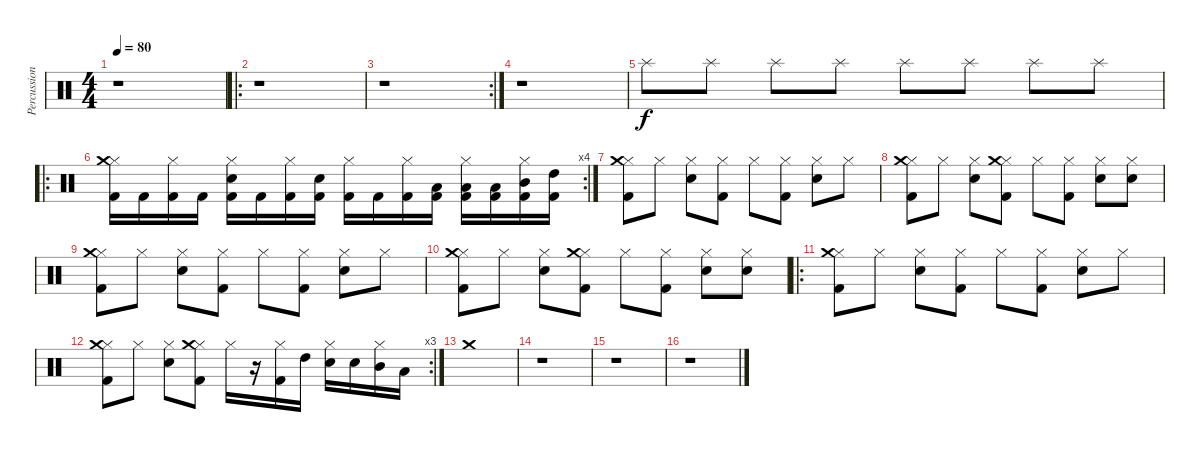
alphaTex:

\track ("Percussion" "Percussion") {instrument percussion}
\staff {score}
\articulation defaults
\ts (4 4)
\tempo 80
\clef neutral
\ks c
r.1{dy f} |
\ro
r.1 |
\rc 2
r.1 |
r.1 |
"Splash (hit)".8{volume 13 balance 8} "Splash (hit)".8 "Splash (hit)".8 "Splash (hit)".8 "Splash (hit)".8 "Splash (hit)".8 "Splash (hit)".8 "Splash (hit)".8 |
\ro
\rc 4
("Hi-Hat (closed)" "Crash medium (hit)" "Kick (hit) 2").16 "Kick (hit) 2".16 ("Hi-Hat (closed)" "Kick (hit) 2").16 "Kick (hit) 2".16 ("Hi-Hat (closed)" "Electric Snare (hit)" "Kick (hit) 2").16 "Kick (hit) 2".16 ("Hi-Hat (closed)" "Kick (hit) 2").16 ("Snare (hit) 2" "Kick (hit) 2").16 ("Hi-Hat (closed)" "Kick (hit) 2").16 "Kick (hit) 2".16 ("Hi-Hat (closed)" "Kick (hit) 2").16 ("Low Floor Tom (hit)" "Kick (hit) 2").16 ("Hi-Hat (closed)" "Low Floor Tom (hit)" "Kick (hit) 2").16 ("Low Tom (hit)" "Kick (hit) 2").16 ("Hi-Hat (closed)" "Mid Tom (hit)" "Kick (hit) 2").16 ("High Tom (hit)" "Kick (hit) 2").16 |
("Hi-Hat (closed)" "Crash medium (hit)" "Kick (hit) 2").8 "Hi-Hat (closed)".8 ("Hi-Hat (closed)" "Electric Snare (hit)").8 ("Hi-Hat (closed)" "Kick (hit) 2").8 "Hi-Hat (closed)".8 ("Hi-Hat (closed)" "Kick (hit) 2").8 ("Hi-Hat (closed)" "Electric Snare (hit)").8 "Hi-Hat (closed)".8 |
("Hi-Hat (closed)" "Crash medium (hit)" "Kick (hit) 2").8 "Hi-Hat (closed)".8 ("Hi-Hat (closed)" "Electric Snare (hit)").8 ("Hi-Hat (closed)" "Crash medium (hit)" "Kick (hit) 2").8 "Hi-Hat (closed)".8 ("Hi-Hat (closed)" "Kick (hit) 2").8 ("Hi-Hat (closed)" "Electric Snare (hit)").8 ("Hi-Hat (closed)" "Snare (hit) 2").8 |
("Hi-Hat (closed)" "Crash medium (hit)" "Kick (hit) 2").8 "Hi-Hat (closed)".8 ("Hi-Hat (closed)" "Electric Snare (hit)").8 ("Hi-Hat (closed)" "Kick (hit) 2").8 "Hi-Hat (closed)".8 ("Hi-Hat (closed)" "Kick (hit) 2").8 ("Hi-Hat (closed)" "Electric Snare (hit)").8 "Hi-Hat (closed)".8 |
("Hi-Hat (closed)" "Crash medium (hit)" "Kick (hit) 2").8 "Hi-Hat (closed)".8 ("Hi-Hat (closed)" "Electric Snare (hit)").8 ("Hi-Hat (closed)" "Crash medium (hit)" "Kick (hit) 2").8 "Hi-Hat (closed)".8 ("Hi-Hat (closed)" "Kick (hit) 2").8 ("Hi-Hat (closed)" "Electric Snare (hit)").8 ("Hi-Hat (closed)" "Snare (hit) 2").8 |
\ro
("Hi-Hat (closed)" "Crash medium (hit)" "Kick (hit) 2").8 "Hi-Hat (closed)".8 ("Hi-Hat (closed)" "Electric Snare (hit)").8 ("Hi-Hat (closed)" "Kick (hit) 2").8 "Hi-Hat (closed)".8 ("Hi-Hat (closed)" "Kick (hit) 2").8 ("Hi-Hat (closed)" "Electric Snare (hit)").8 "Hi-Hat (closed)".8 |
\rc 3
("Hi-Hat (closed)" "Crash medium (hit)" "Kick (hit) 2").8 "Hi-Hat (closed)".8 ("Hi-Hat (closed)" "Electric Snare (hit)").8 ("Hi-Hat (closed)" "Crash medium (hit)" "Kick (hit) 2").8 "Hi-Hat (closed)".16 r.16 ("Hi-Hat (closed)" "Kick (hit) 2").16 "High Tom (hit)".16{volume 16} ("Hi-Hat (closed)" "Electric Snare (hit)").16 "Snare (hit) 2".16 ("Hi-Hat (closed)" "Mid Tom (hit)").16 "Low Tom (hit)".16 |
"Crash medium (hit)".1 |
r.1 |
r.1 |
r.1
